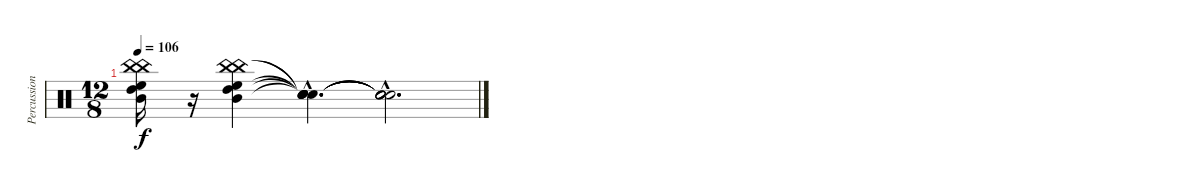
\track ("Percussioni" "Percussion") {instrument percussion}
\staff {score}
\articulation defaults
\ts (12 8)
\tempo 106
\clef neutral
\ks c
("Mid Tom (hit)" "High Tom (hit)" "High Floor Tom (hit)" "China (hit)" "China (hit)").16{dy f} r.16 ("Mid Tom (hit)" "High Tom (hit)" "High Floor Tom (hit)" "China (hit)" "China (hit)").4 ("Snare (hit)"{hac t} "Snare (hit)"{hac t} "Snare (hit)"{hac t} "Snare (hit)"{hac t} "Snare (hit)"{hac t}).4{d} ("Snare (hit)"{hac t} "Snare (hit)"{hac t} "Snare (hit)"{hac t} "Snare (hit)"{hac t} "Snare (hit)"{hac t}).2{d}
